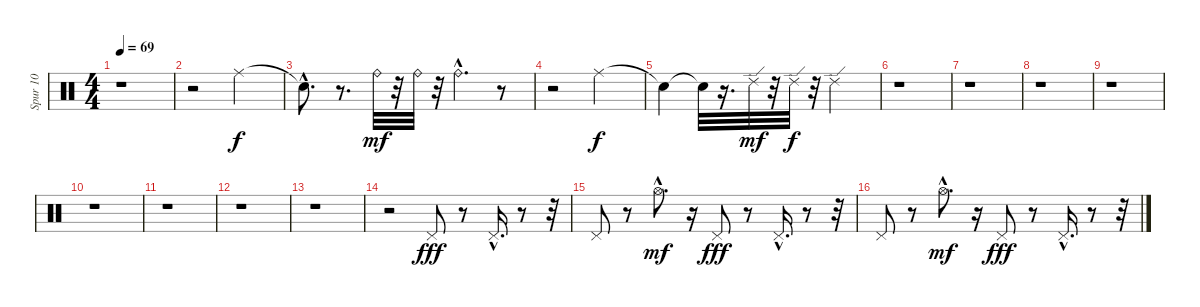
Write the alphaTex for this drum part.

\track ("Spur 10" "Spur 10") {instrument percussion}
\staff {score}
\articulation defaults
\ts (4 4)
\tempo 69
\clef neutral
\ks c
r.1{dy f} |
r.2 "Ride (middle)".2 |
"Snare (hit)"{hac t}.8{d} r.8{d} "Ride (bell)".32{dy mf} r.32 "Ride (bell)".32 r.32 "Ride (bell)"{hac}.4{d} r.8 |
r.2 "Ride (middle)".2{dy f} |
"Snare (hit)"{t}.4 "Snare (hit)"{t}.32 r.16{d} "Ride (edge) 2".32{dy mf} r.32 "Ride (edge) 2".32{dy f} r.32 "Ride (edge) 2".2 |
r.1 |
r.1 |
r.1 |
r.1 |
r.1 |
r.1 |
r.1 |
r.1 |
r.2 "Pedal Hi-Hat (hit)".8{dy fff} r.8 "Pedal Hi-Hat (hit)"{hac}.16{d} r.8 r.32 |
"Pedal Hi-Hat (hit)".8 r.8 "Hi-Hat (open)"{hac}.8{d dy mf} r.16 "Pedal Hi-Hat (hit)".8{dy fff} r.8 "Pedal Hi-Hat (hit)"{hac}.16{d} r.8 r.32 |
"Pedal Hi-Hat (hit)".8 r.8 "Hi-Hat (open)"{hac}.8{d dy mf} r.16 "Pedal Hi-Hat (hit)".8{dy fff} r.8 "Pedal Hi-Hat (hit)"{hac}.16{d} r.8 r.32
